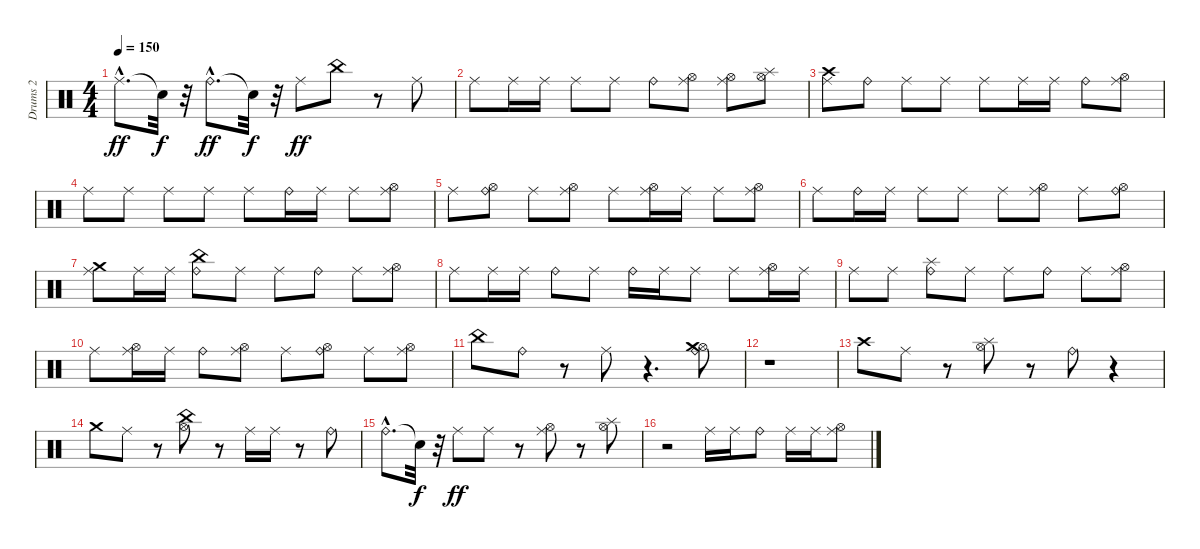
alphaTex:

\track ("Drums 2" "Drums 2") {instrument percussion}
\staff {score}
\articulation defaults
\ts (4 4)
\tempo 150
\clef neutral
\ks c "Ride (middle)"{hac}.8{d dy ff} "Snare (hit)"{t}.32{dy f}
r.32 "Ride (bell)"{hac}.8{d dy ff} "Snare (hit)"{t}.32{dy f} r.32 "Ride (middle)".8{dy ff} "China (hit)".8 r.8 "Ride (middle)".8 |
"Ride (middle)".8 "Ride (middle)".16 "Ride (middle)".16 "Ride (middle)".8 "Ride (middle)".8 "Ride (bell)".8 ("Hi-Hat (open)" "Ride (middle)").8 ("Hi-Hat (open)" "Ride (middle)").8 ("Hi-Hat (open)" "Splash (hit)").8 |
("Crash high (hit)" "Ride (middle)").8 "Ride (bell)".8 "Ride (middle)".8 "Ride (middle)".8 "Ride (middle)".8 "Ride (middle)".16 "Ride (middle)".16 "Ride (bell)".8 ("Hi-Hat (open)" "Ride (middle)").8 |
"Ride (middle)".8 "Ride (middle)".8 "Ride (middle)".8 "Ride (middle)".8 "Ride (middle)".8 "Ride (bell)".16 "Ride (middle)".16 "Ride (middle)".8 ("Hi-Hat (open)" "Ride (middle)").8 |
"Ride (middle)".8 ("Hi-Hat (open)" "Ride (bell)").8 "Ride (middle)".8 ("Hi-Hat (open)" "Ride (middle)").8 "Ride (middle)".8 ("Hi-Hat (open)" "Ride (middle)").16 "Ride (middle)".16 "Ride (middle)".8 ("Hi-Hat (open)" "Ride (middle)").8 |
"Ride (middle)".8 "Ride (bell)".16 "Ride (middle)".16 "Ride (middle)".8 "Ride (middle)".8 "Ride (middle)".8 ("Hi-Hat (open)" "Ride (middle)").8 "Ride (middle)".8 ("Hi-Hat (open)" "Ride (bell)").8 |
("Ride (middle)" "Crash medium (hit)").8 "Ride (middle)".16 "Ride (middle)".16 ("China (hit)" "Ride (bell)").8 "Ride (middle)".8 "Ride (middle)".8 "Ride (bell)".8 "Ride (middle)".8 ("Hi-Hat (open)" "Ride (middle)").8 |
"Ride (middle)".8 "Ride (middle)".16 "Ride (middle)".16 "Ride (bell)".8 "Ride (middle)".8 "Ride (bell)".16 "Ride (middle)".16 "Ride (middle)".8 "Ride (middle)".8 ("Hi-Hat (open)" "Ride (middle)").16 "Ride (middle)".16 |
"Ride (middle)".8 "Ride (middle)".8 ("Ride (bell)" "Splash (hit)").8 "Ride (middle)".8 "Ride (middle)".8 "Ride (bell)".8 "Ride (middle)".8 ("Hi-Hat (open)" "Ride (middle)").8 |
"Ride (middle)".8 ("Hi-Hat (open)" "Ride (middle)").16 "Ride (middle)".16 "Ride (bell)".8 ("Hi-Hat (open)" "Ride (middle)").8 "Ride (middle)".8 ("Hi-Hat (open)" "Ride (bell)").8 "Ride (middle)".8 ("Hi-Hat (open)" "Ride (middle)").8 |
"China (hit)".8 "Ride (bell)".8 r.8 "Ride (middle)".8 r.4{d} ("Hi-Hat (open)" "Ride (bell)" "Crash medium (hit)").8 |
r.1 |
"Crash high (hit)".8 "Ride (middle)".8 r.8 ("Hi-Hat (open)" "Splash (hit)").8 r.8 "Ride (bell)".8 r.4 |
"Crash medium (hit)".8 "Ride (middle)".8 r.8 ("Hi-Hat (open)" "China (hit)").8 r.8 "Ride (middle)".16 "Ride (middle)".16 r.8 "Ride (bell)".8 |
"Ride (bell)"{hac}.8{d} "Snare (hit)"{t}.32{dy f} r.32 "Ride (middle)".8{dy ff} "Ride (middle)".8 r.8 ("Hi-Hat (open)" "Ride (middle)").8 r.8 ("Hi-Hat (open)" "Splash (hit)").8 |
r.2 "Ride (middle)".16 "Ride (middle)".16 "Ride (bell)".8 "Ride (middle)".16 "Ride (middle)".16 ("Hi-Hat (open)" "Ride (middle)").8
